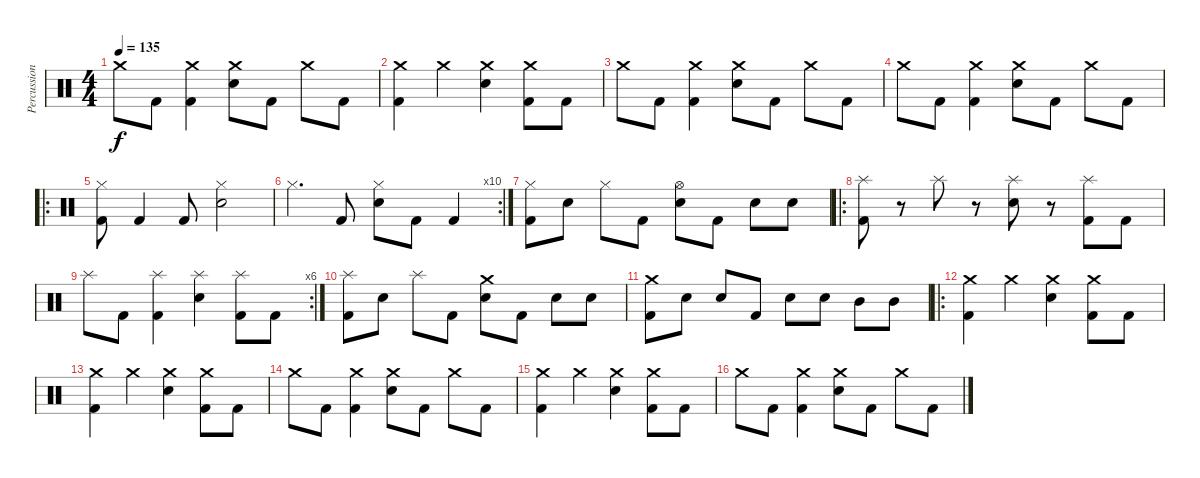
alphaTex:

\track ("Percussion" "Percussion") {instrument percussion}
\staff {score}
\articulation defaults
\ts (4 4)
\tempo 135
\clef neutral
\ks c "Crash medium (hit)".8{dy f} "Kick (hit) 2".8
("Crash medium (hit)" "Kick (hit) 2").4 ("Crash medium (hit)" "Electric Snare (hit)").8 "Kick (hit) 2".8 "Crash medium (hit)".8 "Kick (hit) 2".8 |
("Crash medium (hit)" "Kick (hit) 2").4 "Crash medium (hit)".4 ("Crash medium (hit)" "Electric Snare (hit)").4 ("Crash medium (hit)" "Kick (hit) 2").8 "Kick (hit) 2".8 |
"Crash medium (hit)".8 "Kick (hit) 2".8 ("Crash medium (hit)" "Kick (hit) 2").4 ("Crash medium (hit)" "Electric Snare (hit)").8 "Kick (hit) 2".8 "Crash medium (hit)".8 "Kick (hit) 2".8 |
"Crash medium (hit)".8 "Kick (hit) 2".8 ("Crash medium (hit)" "Kick (hit) 2").4 ("Crash medium (hit)" "Electric Snare (hit)").8 "Kick (hit) 2".8 "Crash medium (hit)".8 "Kick (hit) 2".8 |
\ro
("Hi-Hat (closed)" "Kick (hit) 2").8 "Kick (hit) 2".4 "Kick (hit) 2".8 ("Hi-Hat (closed)" "Electric Snare (hit)").2 |
\rc 10 "Hi-Hat (closed)".4{d} "Kick (hit) 2".8
("Hi-Hat (closed)" "Electric Snare (hit)").8 "Kick (hit) 2".8 "Kick (hit) 2".4 |
("Hi-Hat (closed)" "Kick (hit) 2").8 "Electric Snare (hit)".8 "Hi-Hat (closed)".8 "Kick (hit) 2".8 ("Hi-Hat (open)" "Electric Snare (hit)").8 "Kick (hit) 2".8 "Electric Snare (hit)".8 "Electric Snare (hit)".8 |
\ro
("Splash (hit)" "Kick (hit) 2").8 r.8 "Splash (hit)".8 r.8 ("Splash (hit)" "Electric Snare (hit)").8 r.8 ("Splash (hit)" "Kick (hit) 2").8 "Kick (hit) 2".8 |
\rc 6 "Splash (hit)".8 "Kick (hit) 2".8
("Splash (hit)" "Kick (hit) 2").4 ("Splash (hit)" "Electric Snare (hit)").4 ("Splash (hit)" "Kick (hit) 2").8 "Kick (hit) 2".8 |
("Splash (hit)" "Kick (hit) 2").8 "Electric Snare (hit)".8 "Splash (hit)".8 "Kick (hit) 2".8 ("Crash medium (hit)" "Electric Snare (hit)").8 "Kick (hit) 2".8 "Electric Snare (hit)".8 "Electric Snare (hit)".8 |
("Crash medium (hit)" "Kick (hit) 2").8 "Electric Snare (hit)".8 "Electric Snare (hit)".8 "Kick (hit) 2".8 "Electric Snare (hit)".8 "Electric Snare (hit)".8 "Mid Tom (hit)".8 "Mid Tom (hit)".8 |
\ro
("Crash medium (hit)" "Kick (hit) 2").4 "Crash medium (hit)".4 ("Crash medium (hit)" "Electric Snare (hit)").4 ("Crash medium (hit)" "Kick (hit) 2").8 "Kick (hit) 2".8 |
("Crash medium (hit)" "Kick (hit) 2").4 "Crash medium (hit)".4 ("Crash medium (hit)" "Electric Snare (hit)").4 ("Crash medium (hit)" "Kick (hit) 2").8 "Kick (hit) 2".8 |
"Crash medium (hit)".8 "Kick (hit) 2".8 ("Crash medium (hit)" "Kick (hit) 2").4 ("Crash medium (hit)" "Electric Snare (hit)").8 "Kick (hit) 2".8 "Crash medium (hit)".8 "Kick (hit) 2".8 |
("Crash medium (hit)" "Kick (hit) 2").4 "Crash medium (hit)".4 ("Crash medium (hit)" "Electric Snare (hit)").4 ("Crash medium (hit)" "Kick (hit) 2").8 "Kick (hit) 2".8 |
"Crash medium (hit)".8 "Kick (hit) 2".8 ("Crash medium (hit)" "Kick (hit) 2").4 ("Crash medium (hit)" "Electric Snare (hit)").8 "Kick (hit) 2".8 "Crash medium (hit)".8 "Kick (hit) 2".8
